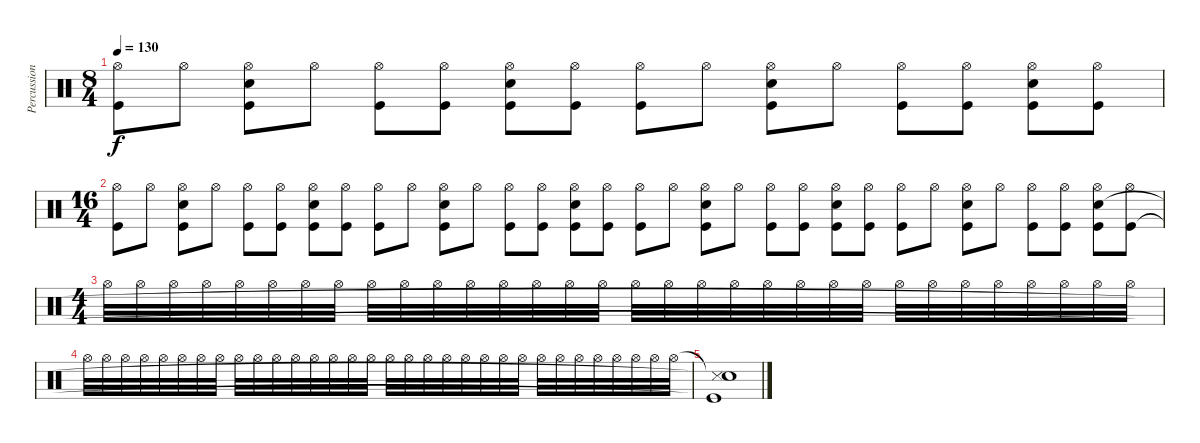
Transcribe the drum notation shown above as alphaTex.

\track ("Percussion" "Percussion") {instrument percussion}
\staff {score}
\articulation defaults
\ts (8 4)
\tempo 130
\clef neutral
\ks c
("Hi-Hat (open)" "Kick (hit)").8{dy f} "Hi-Hat (open)".8 ("Hi-Hat (open)" "Kick (hit)" "Snare (hit) 2").8 "Hi-Hat (open)".8 ("Hi-Hat (open)" "Kick (hit)").8 ("Hi-Hat (open)" "Kick (hit)").8 ("Hi-Hat (open)" "Kick (hit)" "Snare (hit) 2").8 ("Hi-Hat (open)" "Kick (hit)").8 ("Hi-Hat (open)" "Kick (hit)").8 "Hi-Hat (open)".8 ("Hi-Hat (open)" "Kick (hit)" "Snare (hit) 2").8 "Hi-Hat (open)".8 ("Hi-Hat (open)" "Kick (hit)").8 ("Hi-Hat (open)" "Kick (hit)").8 ("Hi-Hat (open)" "Kick (hit)" "Snare (hit) 2").8 ("Hi-Hat (open)" "Kick (hit)").8 |
\ts (16 4)
("Hi-Hat (open)" "Kick (hit)").8 "Hi-Hat (open)".8 ("Hi-Hat (open)" "Kick (hit)" "Snare (hit) 2").8 "Hi-Hat (open)".8 ("Hi-Hat (open)" "Kick (hit)").8 ("Hi-Hat (open)" "Kick (hit)").8 ("Hi-Hat (open)" "Kick (hit)" "Snare (hit) 2").8 ("Hi-Hat (open)" "Kick (hit)").8 ("Hi-Hat (open)" "Kick (hit)").8 "Hi-Hat (open)".8 ("Hi-Hat (open)" "Kick (hit)" "Snare (hit) 2").8 "Hi-Hat (open)".8 ("Hi-Hat (open)" "Kick (hit)").8 ("Hi-Hat (open)" "Kick (hit)").8 ("Hi-Hat (open)" "Kick (hit)" "Snare (hit) 2").8 ("Hi-Hat (open)" "Kick (hit)").8 ("Hi-Hat (open)" "Kick (hit)").8 "Hi-Hat (open)".8 ("Hi-Hat (open)" "Kick (hit)" "Snare (hit) 2").8 "Hi-Hat (open)".8 ("Hi-Hat (open)" "Kick (hit)").8 ("Hi-Hat (open)" "Kick (hit)").8 ("Hi-Hat (open)" "Kick (hit)" "Snare (hit) 2").8 ("Hi-Hat (open)" "Kick (hit)").8 ("Hi-Hat (open)" "Kick (hit)").8 "Hi-Hat (open)".8 ("Hi-Hat (open)" "Kick (hit)" "Snare (hit) 2").8 "Hi-Hat (open)".8 ("Hi-Hat (open)" "Kick (hit)").8 ("Hi-Hat (open)" "Kick (hit)").8 ("Hi-Hat (open)" "Kick (hit)" "Snare (hit) 2").8 ("Hi-Hat (open)" "Kick (hit)").8 |
\ts (4 4)
"Hi-Hat (open)".32 "Hi-Hat (open)".32 "Hi-Hat (open)".32 "Hi-Hat (open)".32 "Hi-Hat (open)".32 "Hi-Hat (open)".32 "Hi-Hat (open)".32 "Hi-Hat (open)".32 "Hi-Hat (open)".32 "Hi-Hat (open)".32 "Hi-Hat (open)".32 "Hi-Hat (open)".32 "Hi-Hat (open)".32 "Hi-Hat (open)".32 "Hi-Hat (open)".32 "Hi-Hat (open)".32 "Hi-Hat (open)".32 "Hi-Hat (open)".32 "Hi-Hat (open)".32 "Hi-Hat (open)".32 "Hi-Hat (open)".32 "Hi-Hat (open)".32 "Hi-Hat (open)".32 "Hi-Hat (open)".32 "Hi-Hat (open)".32 "Hi-Hat (open)".32 "Hi-Hat (open)".32 "Hi-Hat (open)".32 "Hi-Hat (open)".32 "Hi-Hat (open)".32 "Hi-Hat (open)".32 "Hi-Hat (open)".32 |
"Hi-Hat (open)".32 "Hi-Hat (open)".32 "Hi-Hat (open)".32 "Hi-Hat (open)".32 "Hi-Hat (open)".32 "Hi-Hat (open)".32 "Hi-Hat (open)".32 "Hi-Hat (open)".32 "Hi-Hat (open)".32 "Hi-Hat (open)".32 "Hi-Hat (open)".32 "Hi-Hat (open)".32 "Hi-Hat (open)".32 "Hi-Hat (open)".32 "Hi-Hat (open)".32 "Hi-Hat (open)".32 "Hi-Hat (open)".32 "Hi-Hat (open)".32 "Hi-Hat (open)".32 "Hi-Hat (open)".32 "Hi-Hat (open)".32 "Hi-Hat (open)".32 "Hi-Hat (open)".32 "Hi-Hat (open)".32 "Hi-Hat (open)".32 "Hi-Hat (open)".32{volume 14} "Hi-Hat (open)".32{volume 12} "Hi-Hat (open)".32{volume 10} "Hi-Hat (open)".32{volume 8} "Hi-Hat (open)".32{volume 6} "Hi-Hat (open)".32{volume 4} "Hi-Hat (open)".32{volume 2} |
("Snare (side stick) 3"{t} "Kick (hit)"{t} "Snare (hit)"{t}).1
